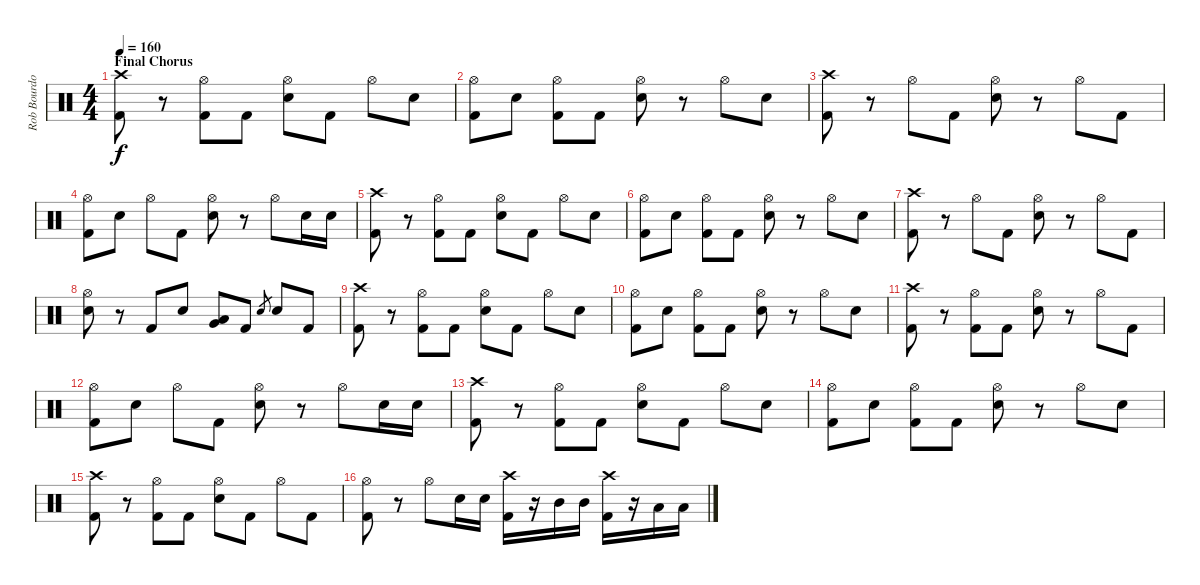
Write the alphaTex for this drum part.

\track ("Rob Bourdon (Drums)" "Rob Bourdo") {instrument percussion}
\staff {score}
\articulation defaults
\ts (4 4)
\section ("" "Final Chorus")
\tempo 160
\clef neutral
\ks c
("Crash high (hit)" "Kick (hit) 2").8{dy f} r.8 ("Hi-Hat (open)" "Kick (hit) 2").8 "Kick (hit) 2".8 ("Hi-Hat (open)" "Electric Snare (hit)").8 "Kick (hit) 2".8 "Hi-Hat (open)".8 "Electric Snare (hit)".8 |
("Hi-Hat (open)" "Kick (hit) 2").8 "Electric Snare (hit)".8 ("Hi-Hat (open)" "Kick (hit) 2").8 "Kick (hit) 2".8 ("Hi-Hat (open)" "Electric Snare (hit)").8 r.8 "Hi-Hat (open)".8 "Electric Snare (hit)".8 |
("Crash high (hit)" "Kick (hit) 2").8 r.8 "Hi-Hat (open)".8 "Kick (hit) 2".8 ("Hi-Hat (open)" "Electric Snare (hit)").8 r.8 "Hi-Hat (open)".8 "Kick (hit) 2".8 |
("Hi-Hat (open)" "Kick (hit) 2").8 "Electric Snare (hit)".8 "Hi-Hat (open)".8 "Kick (hit) 2".8 ("Hi-Hat (open)" "Electric Snare (hit)").8 r.8 "Hi-Hat (open)".8 "Electric Snare (hit)".16 "Electric Snare (hit)".16 |
("Crash high (hit)" "Kick (hit) 2").8 r.8 ("Hi-Hat (open)" "Kick (hit) 2").8 "Kick (hit) 2".8 ("Hi-Hat (open)" "Electric Snare (hit)").8 "Kick (hit) 2".8 "Hi-Hat (open)".8 "Electric Snare (hit)".8 |
("Hi-Hat (open)" "Kick (hit) 2").8 "Electric Snare (hit)".8 ("Hi-Hat (open)" "Kick (hit) 2").8 "Kick (hit) 2".8 ("Hi-Hat (open)" "Electric Snare (hit)").8 r.8 "Hi-Hat (open)".8 "Electric Snare (hit)".8 |
("Crash high (hit)" "Kick (hit) 2").8 r.8 "Hi-Hat (open)".8 "Kick (hit) 2".8 ("Hi-Hat (open)" "Electric Snare (hit)").8 r.8 "Hi-Hat (open)".8 "Kick (hit) 2".8 |
("Hi-Hat (open)" "Electric Snare (hit)").8 r.8 "Kick (hit) 2".8 "Electric Snare (hit)".8 ("Low Tom (hit)" "Very Low Tom (hit)").8 "Kick (hit) 2".8 "Electric Snare (hit)".8{gr} "Electric Snare (hit)".8 "Kick (hit) 2".8 |
("Crash high (hit)" "Kick (hit) 2").8 r.8 ("Hi-Hat (open)" "Kick (hit) 2").8 "Kick (hit) 2".8 ("Hi-Hat (open)" "Electric Snare (hit)").8 "Kick (hit) 2".8 "Hi-Hat (open)".8 "Electric Snare (hit)".8 |
("Hi-Hat (open)" "Kick (hit) 2").8 "Electric Snare (hit)".8 ("Hi-Hat (open)" "Kick (hit) 2").8 "Kick (hit) 2".8 ("Hi-Hat (open)" "Electric Snare (hit)").8 r.8 "Hi-Hat (open)".8 "Electric Snare (hit)".8 |
("Crash high (hit)" "Kick (hit) 2").8 r.8 ("Hi-Hat (open)" "Kick (hit) 2").8 "Kick (hit) 2".8 ("Hi-Hat (open)" "Electric Snare (hit)").8 r.8 "Hi-Hat (open)".8 "Kick (hit) 2".8 |
("Hi-Hat (open)" "Kick (hit) 2").8 "Electric Snare (hit)".8 "Hi-Hat (open)".8 "Kick (hit) 2".8 ("Hi-Hat (open)" "Electric Snare (hit)").8 r.8 "Hi-Hat (open)".8 "Electric Snare (hit)".16 "Electric Snare (hit)".16 |
("Crash high (hit)" "Kick (hit) 2").8 r.8 ("Hi-Hat (open)" "Kick (hit) 2").8 "Kick (hit) 2".8 ("Hi-Hat (open)" "Electric Snare (hit)").8 "Kick (hit) 2".8 "Hi-Hat (open)".8 "Electric Snare (hit)".8 |
("Hi-Hat (open)" "Kick (hit) 2").8 "Electric Snare (hit)".8 ("Hi-Hat (open)" "Kick (hit) 2").8 "Kick (hit) 2".8 ("Hi-Hat (open)" "Electric Snare (hit)").8 r.8 "Hi-Hat (open)".8 "Electric Snare (hit)".8 |
("Crash high (hit)" "Kick (hit) 2").8 r.8 ("Hi-Hat (open)" "Kick (hit) 2").8 "Kick (hit) 2".8 ("Hi-Hat (open)" "Electric Snare (hit)").8 "Kick (hit) 2".8 "Hi-Hat (open)".8 "Kick (hit) 2".8 |
("Hi-Hat (open)" "Kick (hit) 2").8 r.8 "Hi-Hat (open)".8 "Electric Snare (hit)".16 "Electric Snare (hit)".16 ("Crash high (hit)" "Kick (hit) 2").16 r.16 "Mid Tom (hit)".16 "Mid Tom (hit)".16 ("Crash high (hit)" "Kick (hit) 2").16 r.16 "Low Tom (hit)".16 "Low Tom (hit)".16
